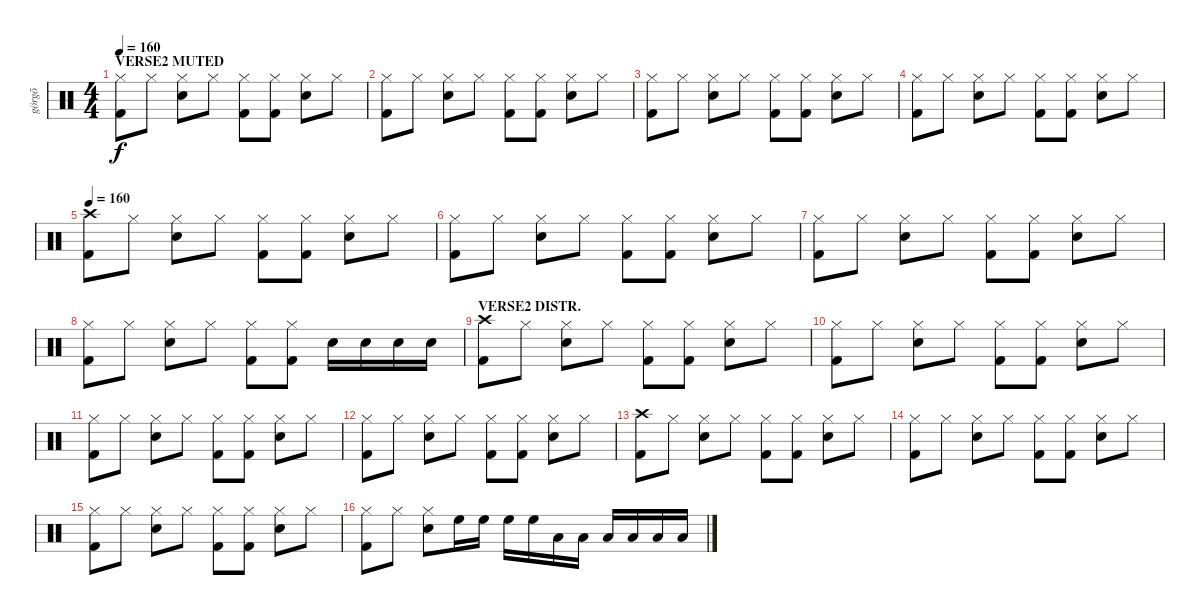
\track ("görgõ" "görgõ") {instrument percussion}
\staff {score}
\articulation defaults
\ts (4 4)
\section ("" "VERSE2 MUTED")
\tempo 160
\clef neutral
\ks c
("Hi-Hat (closed)" "Kick (hit) 2").8{dy f} "Hi-Hat (closed)".8 ("Hi-Hat (closed)" "Snare (hit) 2").8 "Hi-Hat (closed)".8 ("Hi-Hat (closed)" "Kick (hit) 2").8 ("Hi-Hat (closed)" "Kick (hit) 2").8 ("Hi-Hat (closed)" "Snare (hit) 2").8 "Hi-Hat (closed)".8 |
("Hi-Hat (closed)" "Kick (hit) 2").8 "Hi-Hat (closed)".8 ("Hi-Hat (closed)" "Snare (hit) 2").8 "Hi-Hat (closed)".8 ("Hi-Hat (closed)" "Kick (hit) 2").8 ("Hi-Hat (closed)" "Kick (hit) 2").8 ("Hi-Hat (closed)" "Snare (hit) 2").8 "Hi-Hat (closed)".8 |
("Hi-Hat (closed)" "Kick (hit) 2").8 "Hi-Hat (closed)".8 ("Hi-Hat (closed)" "Snare (hit) 2").8 "Hi-Hat (closed)".8 ("Hi-Hat (closed)" "Kick (hit) 2").8 ("Hi-Hat (closed)" "Kick (hit) 2").8 ("Hi-Hat (closed)" "Snare (hit) 2").8 "Hi-Hat (closed)".8 |
("Hi-Hat (closed)" "Kick (hit) 2").8 "Hi-Hat (closed)".8 ("Hi-Hat (closed)" "Snare (hit) 2").8 "Hi-Hat (closed)".8 ("Hi-Hat (closed)" "Kick (hit) 2").8 ("Hi-Hat (closed)" "Kick (hit) 2").8 ("Hi-Hat (closed)" "Snare (hit) 2").8 "Hi-Hat (closed)".8 |
\tempo 160
("Crash high (hit)" "Kick (hit) 2").8 "Hi-Hat (closed)".8 ("Hi-Hat (closed)" "Snare (hit) 2").8 "Hi-Hat (closed)".8 ("Hi-Hat (closed)" "Kick (hit) 2").8 ("Hi-Hat (closed)" "Kick (hit) 2").8 ("Hi-Hat (closed)" "Snare (hit) 2").8 "Hi-Hat (closed)".8 |
("Hi-Hat (closed)" "Kick (hit) 2").8 "Hi-Hat (closed)".8 ("Hi-Hat (closed)" "Snare (hit) 2").8 "Hi-Hat (closed)".8 ("Hi-Hat (closed)" "Kick (hit) 2").8 ("Hi-Hat (closed)" "Kick (hit) 2").8 ("Hi-Hat (closed)" "Snare (hit) 2").8 "Hi-Hat (closed)".8 |
("Hi-Hat (closed)" "Kick (hit) 2").8 "Hi-Hat (closed)".8 ("Hi-Hat (closed)" "Snare (hit) 2").8 "Hi-Hat (closed)".8 ("Hi-Hat (closed)" "Kick (hit) 2").8 ("Hi-Hat (closed)" "Kick (hit) 2").8 ("Hi-Hat (closed)" "Snare (hit) 2").8 "Hi-Hat (closed)".8 |
("Hi-Hat (closed)" "Kick (hit) 2").8 "Hi-Hat (closed)".8 ("Hi-Hat (closed)" "Snare (hit) 2").8 "Hi-Hat (closed)".8 ("Hi-Hat (closed)" "Kick (hit) 2").8 ("Hi-Hat (closed)" "Kick (hit) 2").8 "Snare (hit) 2".16 "Snare (hit) 2".16 "Snare (hit) 2".16 "Snare (hit) 2".16 |
\section ("" "VERSE2 DISTR.")
("Crash high (hit)" "Kick (hit) 2").8 "Hi-Hat (closed)".8 ("Hi-Hat (closed)" "Snare (hit) 2").8 "Hi-Hat (closed)".8 ("Hi-Hat (closed)" "Kick (hit) 2").8 ("Hi-Hat (closed)" "Kick (hit) 2").8 ("Hi-Hat (closed)" "Snare (hit) 2").8 "Hi-Hat (closed)".8 |
("Hi-Hat (closed)" "Kick (hit) 2").8 "Hi-Hat (closed)".8 ("Hi-Hat (closed)" "Snare (hit) 2").8 "Hi-Hat (closed)".8 ("Hi-Hat (closed)" "Kick (hit) 2").8 ("Hi-Hat (closed)" "Kick (hit) 2").8 ("Hi-Hat (closed)" "Snare (hit) 2").8 "Hi-Hat (closed)".8 |
("Hi-Hat (closed)" "Kick (hit) 2").8 "Hi-Hat (closed)".8 ("Hi-Hat (closed)" "Snare (hit) 2").8 "Hi-Hat (closed)".8 ("Hi-Hat (closed)" "Kick (hit) 2").8 ("Hi-Hat (closed)" "Kick (hit) 2").8 ("Hi-Hat (closed)" "Snare (hit) 2").8 "Hi-Hat (closed)".8 |
("Hi-Hat (closed)" "Kick (hit) 2").8 "Hi-Hat (closed)".8 ("Hi-Hat (closed)" "Snare (hit) 2").8 "Hi-Hat (closed)".8 ("Hi-Hat (closed)" "Kick (hit) 2").8 ("Hi-Hat (closed)" "Kick (hit) 2").8 ("Hi-Hat (closed)" "Snare (hit) 2").8 "Hi-Hat (closed)".8 |
("Crash high (hit)" "Kick (hit) 2").8 "Hi-Hat (closed)".8 ("Hi-Hat (closed)" "Snare (hit) 2").8 "Hi-Hat (closed)".8 ("Hi-Hat (closed)" "Kick (hit) 2").8 ("Hi-Hat (closed)" "Kick (hit) 2").8 ("Hi-Hat (closed)" "Snare (hit) 2").8 "Hi-Hat (closed)".8 |
("Hi-Hat (closed)" "Kick (hit) 2").8 "Hi-Hat (closed)".8 ("Hi-Hat (closed)" "Snare (hit) 2").8 "Hi-Hat (closed)".8 ("Hi-Hat (closed)" "Kick (hit) 2").8 ("Hi-Hat (closed)" "Kick (hit) 2").8 ("Hi-Hat (closed)" "Snare (hit) 2").8 "Hi-Hat (closed)".8 |
("Hi-Hat (closed)" "Kick (hit) 2").8 "Hi-Hat (closed)".8 ("Hi-Hat (closed)" "Snare (hit) 2").8 "Hi-Hat (closed)".8 ("Hi-Hat (closed)" "Kick (hit) 2").8 ("Hi-Hat (closed)" "Kick (hit) 2").8 ("Hi-Hat (closed)" "Snare (hit) 2").8 "Hi-Hat (closed)".8 |
("Hi-Hat (closed)" "Kick (hit) 2").8 "Hi-Hat (closed)".8 ("Hi-Hat (closed)" "Snare (hit) 2").8 "High Floor Tom (hit)".16 "High Floor Tom (hit)".16 "High Floor Tom (hit)".16 "High Floor Tom (hit)".16 "Low Tom (hit)".16 "Low Tom (hit)".16 "Low Tom (hit)".16 "Low Tom (hit)".16 "Low Tom (hit)".16 "Low Tom (hit)".16
